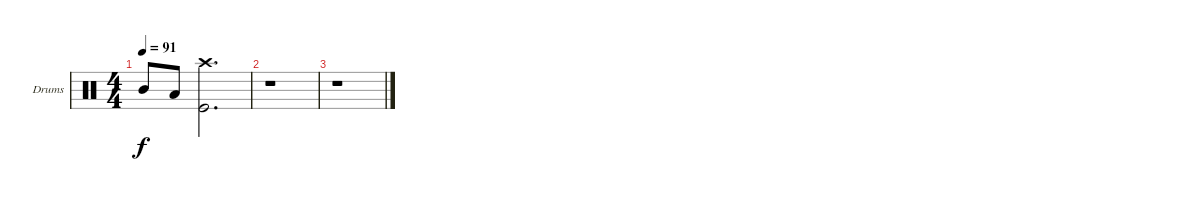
\bracketExtendMode groupsimilarinstruments
\firstSystemTrackNameOrientation horizontal
\otherSystemsTrackNameOrientation horizontal
\track ("Fabrizio" "Drums") {instrument percussion}
\staff {score}
\articulation defaults
\ts (4 4)
\tempo 91
\clef neutral
\ks c "Mid Tom (hit)".8{dy f} "Low Tom (hit)".8
("Crash high (hit)" "Kick (hit)").2{d} |
r.1 |
r.1
